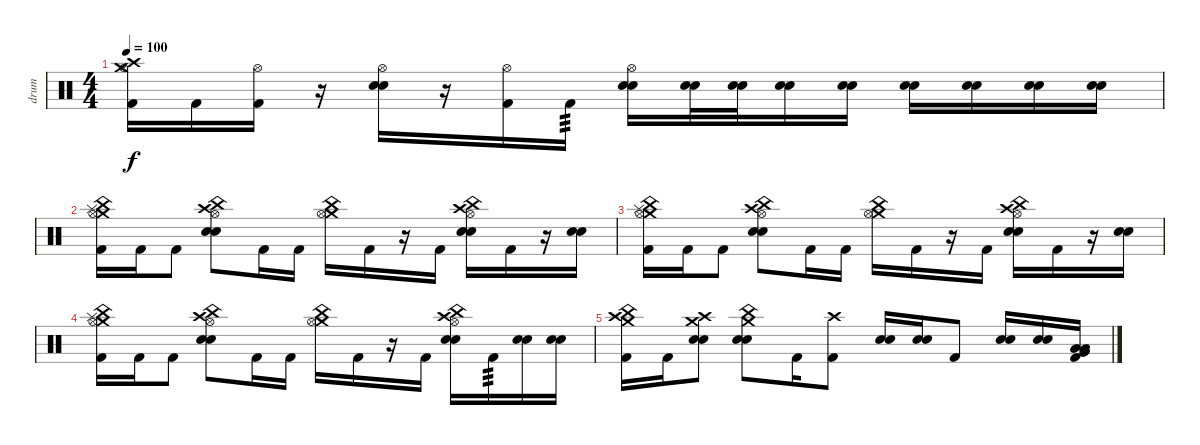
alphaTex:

\track ("drum" "drum") {instrument percussion}
\staff {score}
\articulation defaults
\ts (4 4)
\tempo 100
\clef neutral
\ks c
("Crash high (hit)" "Hi-Hat (open)" "Crash medium (hit)" "Kick (hit) 2").16{dy f} "Kick (hit) 2".16 ("Hi-Hat (open)" "Kick (hit) 2").16 r.16 ("Hi-Hat (open)" "Snare (hit) 2" "Electric Snare (hit)").16 r.16 ("Hi-Hat (open)" "Kick (hit) 2").16 "Kick (hit) 2".16{tp 3} ("Hi-Hat (open)" "Snare (hit) 2" "Electric Snare (hit)").16 ("Snare (hit) 2" "Electric Snare (hit)").32 ("Snare (hit) 2" "Electric Snare (hit)").32 ("Snare (hit) 2" "Electric Snare (hit)").16 ("Snare (hit) 2" "Electric Snare (hit)").16 ("Snare (hit) 2" "Electric Snare (hit)").16 ("Snare (hit) 2" "Electric Snare (hit)").16 ("Snare (hit) 2" "Electric Snare (hit)").16 ("Snare (hit) 2" "Electric Snare (hit)").16 |
("Crash medium (hit)" "Hi-Hat (open)" "Splash (hit)" "China (hit)" "Kick (hit) 2").16 "Kick (hit) 2".16 "Kick (hit) 2".8 ("Crash high (hit)" "Hi-Hat (open)" "Electric Snare (hit)" "Snare (hit) 2" "China (hit)").8 "Kick (hit) 2".16 "Kick (hit) 2".16 ("Crash medium (hit)" "Hi-Hat (open)" "China (hit)").16 "Kick (hit) 2".16 r.16 "Kick (hit) 2".16 ("Crash high (hit)" "Hi-Hat (open)" "Electric Snare (hit)" "Snare (hit) 2" "China (hit)").16 "Kick (hit) 2".16 r.16 ("Electric Snare (hit)" "Snare (hit) 2").16 |
("Crash medium (hit)" "Hi-Hat (open)" "Splash (hit)" "China (hit)" "Kick (hit) 2").16 "Kick (hit) 2".16 "Kick (hit) 2".8 ("Crash high (hit)" "Hi-Hat (open)" "Electric Snare (hit)" "Snare (hit) 2" "China (hit)").8 "Kick (hit) 2".16 "Kick (hit) 2".16 ("Crash medium (hit)" "Hi-Hat (open)" "China (hit)").16 "Kick (hit) 2".16 r.16 "Kick (hit) 2".16 ("Crash high (hit)" "Hi-Hat (open)" "Electric Snare (hit)" "Snare (hit) 2" "China (hit)").16 "Kick (hit) 2".16 r.16 ("Electric Snare (hit)" "Snare (hit) 2").16 |
("Crash medium (hit)" "Hi-Hat (open)" "Splash (hit)" "China (hit)" "Kick (hit) 2").16 "Kick (hit) 2".16 "Kick (hit) 2".8 ("Crash high (hit)" "Hi-Hat (open)" "Electric Snare (hit)" "Snare (hit) 2" "China (hit)").8 "Kick (hit) 2".16 "Kick (hit) 2".16 ("Crash medium (hit)" "Hi-Hat (open)" "China (hit)").16 "Kick (hit) 2".16 r.16 "Kick (hit) 2".16 ("Crash high (hit)" "Hi-Hat (open)" "Electric Snare (hit)" "Snare (hit) 2" "China (hit)").16 "Kick (hit) 2".16{tp 3} ("Electric Snare (hit)" "Snare (hit) 2").16 ("Electric Snare (hit)" "Snare (hit) 2").16 |
("Crash high (hit)" "Crash medium (hit)" "China (hit)" "Kick (hit) 2").16 "Kick (hit) 2".16 ("Crash medium (hit)" "Crash high (hit)" "Electric Snare (hit)" "Snare (hit) 2").8 ("Crash medium (hit)" "China (hit)" "Electric Snare (hit)" "Snare (hit) 2").8 "Kick (hit) 2".16 ("Crash high (hit)" "Kick (hit) 2").8 ("Electric Snare (hit)" "Snare (hit) 2").16 ("Electric Snare (hit)" "Snare (hit) 2").16 "Kick (hit) 2".8 ("Electric Snare (hit)" "Snare (hit) 2").16 ("Electric Snare (hit)" "Snare (hit) 2").16 ("Low Floor Tom (hit)" "Very Low Tom (hit)" "Low Tom (hit)" "Kick (hit) 2").16
